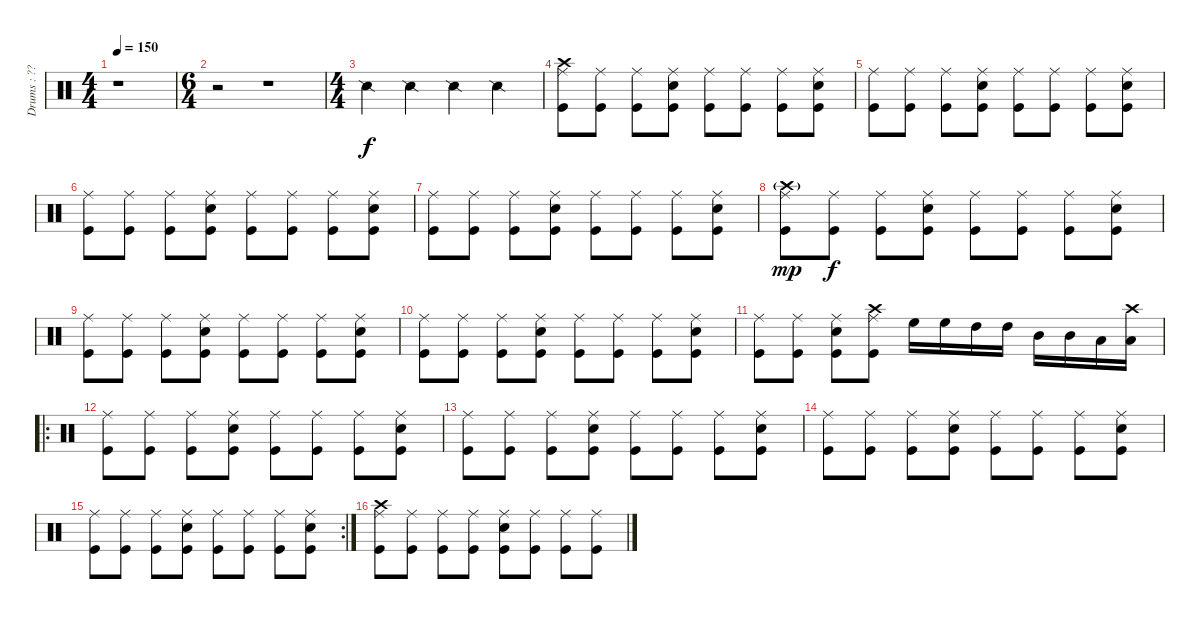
\track ("Drums : ???" "Drums : ??") {instrument percussion}
\staff {score}
\articulation defaults
\ts (4 4)
\tempo 150
\clef neutral
\ks c
r.1{dy f} |
\ts (6 4)
r.2 r.1 |
\ts (4 4)
"Snare (side stick) 2".4 "Snare (side stick) 2".4 "Snare (side stick) 2".4 "Snare (side stick) 2".4 |
("Crash high (hit)" "Ride (middle)" "Kick (hit)").8 ("Ride (middle)" "Kick (hit)").8 ("Ride (middle)" "Kick (hit)").8 ("Snare (hit) 2" "Ride (middle)" "Kick (hit)").8 ("Ride (middle)" "Kick (hit)").8 ("Ride (middle)" "Kick (hit)").8 ("Ride (middle)" "Kick (hit)").8 ("Snare (hit) 2" "Ride (middle)" "Kick (hit)").8 |
("Ride (middle)" "Kick (hit)").8 ("Ride (middle)" "Kick (hit)").8 ("Ride (middle)" "Kick (hit)").8 ("Snare (hit) 2" "Ride (middle)" "Kick (hit)").8 ("Ride (middle)" "Kick (hit)").8 ("Ride (middle)" "Kick (hit)").8 ("Ride (middle)" "Kick (hit)").8 ("Snare (hit) 2" "Ride (middle)" "Kick (hit)").8 |
("Ride (middle)" "Kick (hit)").8 ("Ride (middle)" "Kick (hit)").8 ("Ride (middle)" "Kick (hit)").8 ("Snare (hit) 2" "Ride (middle)" "Kick (hit)").8 ("Ride (middle)" "Kick (hit)").8 ("Ride (middle)" "Kick (hit)").8 ("Ride (middle)" "Kick (hit)").8 ("Snare (hit) 2" "Ride (middle)" "Kick (hit)").8 |
("Ride (middle)" "Kick (hit)").8 ("Ride (middle)" "Kick (hit)").8 ("Ride (middle)" "Kick (hit)").8 ("Snare (hit) 2" "Ride (middle)" "Kick (hit)").8 ("Ride (middle)" "Kick (hit)").8 ("Ride (middle)" "Kick (hit)").8 ("Ride (middle)" "Kick (hit)").8 ("Snare (hit) 2" "Ride (middle)" "Kick (hit)").8 |
("Crash high (hit)"{g} "Ride (middle)" "Kick (hit)").8{dy mp} ("Ride (middle)" "Kick (hit)").8{dy f} ("Ride (middle)" "Kick (hit)").8 ("Snare (hit) 2" "Ride (middle)" "Kick (hit)").8 ("Ride (middle)" "Kick (hit)").8 ("Ride (middle)" "Kick (hit)").8 ("Ride (middle)" "Kick (hit)").8 ("Snare (hit) 2" "Ride (middle)" "Kick (hit)").8 |
("Ride (middle)" "Kick (hit)").8 ("Ride (middle)" "Kick (hit)").8 ("Ride (middle)" "Kick (hit)").8 ("Snare (hit) 2" "Ride (middle)" "Kick (hit)").8 ("Ride (middle)" "Kick (hit)").8 ("Ride (middle)" "Kick (hit)").8 ("Ride (middle)" "Kick (hit)").8 ("Snare (hit) 2" "Ride (middle)" "Kick (hit)").8 |
("Ride (middle)" "Kick (hit)").8 ("Ride (middle)" "Kick (hit)").8 ("Ride (middle)" "Kick (hit)").8 ("Snare (hit) 2" "Ride (middle)" "Kick (hit)").8 ("Ride (middle)" "Kick (hit)").8 ("Ride (middle)" "Kick (hit)").8 ("Ride (middle)" "Kick (hit)").8 ("Snare (hit) 2" "Ride (middle)" "Kick (hit)").8 |
("Ride (middle)" "Kick (hit)").8 ("Ride (middle)" "Kick (hit)").8 ("Snare (hit) 2" "Ride (middle)" "Kick (hit)").8 ("Crash high (hit)" "Ride (middle)" "Kick (hit)").8 "High Floor Tom (hit)".16 "High Floor Tom (hit)".16 "High Tom (hit)".16 "High Tom (hit)".16 "Mid Tom (hit)".16 "Mid Tom (hit)".16 "Low Tom (hit)".16 ("Crash high (hit)" "Low Tom (hit)").16 |
\ro
("Ride (middle)" "Kick (hit)").8 ("Ride (middle)" "Kick (hit)").8 ("Ride (middle)" "Kick (hit)").8 ("Snare (hit) 2" "Ride (middle)" "Kick (hit)").8 ("Ride (middle)" "Kick (hit)").8 ("Ride (middle)" "Kick (hit)").8 ("Ride (middle)" "Kick (hit)").8 ("Snare (hit) 2" "Ride (middle)" "Kick (hit)").8 |
("Ride (middle)" "Kick (hit)").8 ("Ride (middle)" "Kick (hit)").8 ("Ride (middle)" "Kick (hit)").8 ("Snare (hit) 2" "Ride (middle)" "Kick (hit)").8 ("Ride (middle)" "Kick (hit)").8 ("Ride (middle)" "Kick (hit)").8 ("Ride (middle)" "Kick (hit)").8 ("Snare (hit) 2" "Ride (middle)" "Kick (hit)").8 |
("Ride (middle)" "Kick (hit)").8 ("Ride (middle)" "Kick (hit)").8 ("Ride (middle)" "Kick (hit)").8 ("Snare (hit) 2" "Ride (middle)" "Kick (hit)").8 ("Ride (middle)" "Kick (hit)").8 ("Ride (middle)" "Kick (hit)").8 ("Ride (middle)" "Kick (hit)").8 ("Snare (hit) 2" "Ride (middle)" "Kick (hit)").8 |
\rc 2
("Ride (middle)" "Kick (hit)").8 ("Ride (middle)" "Kick (hit)").8 ("Ride (middle)" "Kick (hit)").8 ("Snare (hit) 2" "Ride (middle)" "Kick (hit)").8 ("Ride (middle)" "Kick (hit)").8 ("Ride (middle)" "Kick (hit)").8 ("Ride (middle)" "Kick (hit)").8 ("Snare (hit) 2" "Ride (middle)" "Kick (hit)").8 |
("Crash high (hit)" "Ride (middle)" "Kick (hit)").8 ("Ride (middle)" "Kick (hit)").8 ("Ride (middle)" "Kick (hit)").8 ("Ride (middle)" "Kick (hit)").8 ("Snare (hit) 2" "Ride (middle)" "Kick (hit)").8 ("Ride (middle)" "Kick (hit)").8 ("Ride (middle)" "Kick (hit)").8 ("Ride (middle)" "Kick (hit)").8
